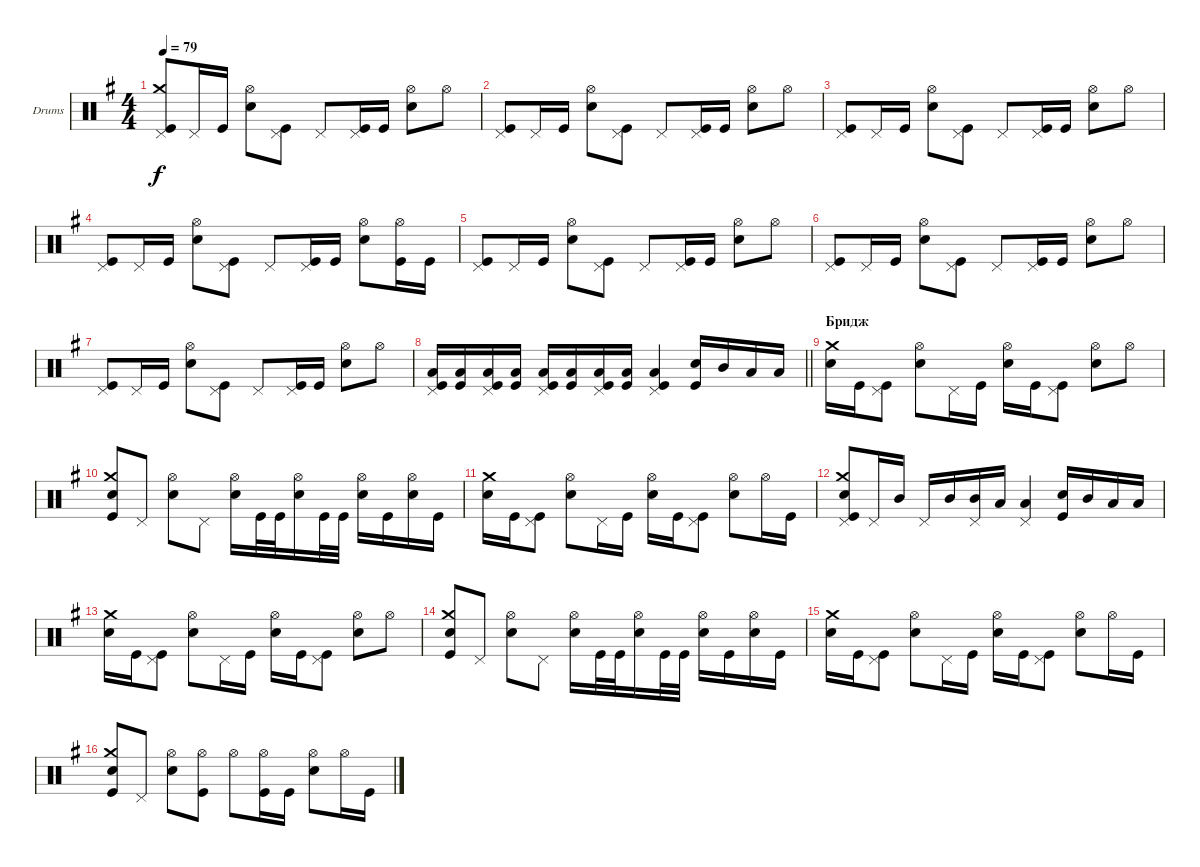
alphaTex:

\bracketExtendMode groupsimilarinstruments
\firstSystemTrackNameOrientation horizontal
\otherSystemsTrackNameOrientation horizontal
\track ("Александр Манякин" "Drums") {instrument percussion}
\staff {score}
\articulation defaults
\ts (4 4)
\tempo 79
\clef neutral
\ks eminor
("Kick (hit)" "Crash medium (hit)" "Pedal Hi-Hat (hit)").8{dy f} "Pedal Hi-Hat (hit)".16 "Kick (hit)".16 ("Snare (hit) 2" "Hi-Hat (open)").8 ("Kick (hit)" "Pedal Hi-Hat (hit)").8 "Pedal Hi-Hat (hit)".8 ("Kick (hit)" "Pedal Hi-Hat (hit)").16 "Kick (hit)".16 ("Hi-Hat (open)" "Snare (hit) 2").8 "Hi-Hat (open)".8 |
("Kick (hit)" "Pedal Hi-Hat (hit)").8 "Pedal Hi-Hat (hit)".16 "Kick (hit)".16 ("Snare (hit) 2" "Hi-Hat (open)").8 ("Kick (hit)" "Pedal Hi-Hat (hit)").8 "Pedal Hi-Hat (hit)".8 ("Kick (hit)" "Pedal Hi-Hat (hit)").16 "Kick (hit)".16 ("Hi-Hat (open)" "Snare (hit) 2").8 "Hi-Hat (open)".8 |
("Kick (hit)" "Pedal Hi-Hat (hit)").8 "Pedal Hi-Hat (hit)".16 "Kick (hit)".16 ("Snare (hit) 2" "Hi-Hat (open)").8 ("Kick (hit)" "Pedal Hi-Hat (hit)").8 "Pedal Hi-Hat (hit)".8 ("Kick (hit)" "Pedal Hi-Hat (hit)").16 "Kick (hit)".16 ("Hi-Hat (open)" "Snare (hit) 2").8 "Hi-Hat (open)".8 |
("Kick (hit)" "Pedal Hi-Hat (hit)").8 "Pedal Hi-Hat (hit)".16 "Kick (hit)".16 ("Snare (hit) 2" "Hi-Hat (open)").8 ("Kick (hit)" "Pedal Hi-Hat (hit)").8 "Pedal Hi-Hat (hit)".8 ("Kick (hit)" "Pedal Hi-Hat (hit)").16 "Kick (hit)".16 ("Hi-Hat (open)" "Snare (hit) 2").8 ("Hi-Hat (open)" "Kick (hit)").16 "Kick (hit)".16 |
("Kick (hit)" "Pedal Hi-Hat (hit)").8 "Pedal Hi-Hat (hit)".16 "Kick (hit)".16 ("Snare (hit) 2" "Hi-Hat (open)").8 ("Kick (hit)" "Pedal Hi-Hat (hit)").8 "Pedal Hi-Hat (hit)".8 ("Kick (hit)" "Pedal Hi-Hat (hit)").16 "Kick (hit)".16 ("Hi-Hat (open)" "Snare (hit) 2").8 "Hi-Hat (open)".8 |
("Kick (hit)" "Pedal Hi-Hat (hit)").8 "Pedal Hi-Hat (hit)".16 "Kick (hit)".16 ("Snare (hit) 2" "Hi-Hat (open)").8 ("Kick (hit)" "Pedal Hi-Hat (hit)").8 "Pedal Hi-Hat (hit)".8 ("Kick (hit)" "Pedal Hi-Hat (hit)").16 "Kick (hit)".16 ("Hi-Hat (open)" "Snare (hit) 2").8 "Hi-Hat (open)".8 |
("Kick (hit)" "Pedal Hi-Hat (hit)").8 "Pedal Hi-Hat (hit)".16 "Kick (hit)".16 ("Snare (hit) 2" "Hi-Hat (open)").8 ("Kick (hit)" "Pedal Hi-Hat (hit)").8 "Pedal Hi-Hat (hit)".8 ("Kick (hit)" "Pedal Hi-Hat (hit)").16 "Kick (hit)".16 ("Hi-Hat (open)" "Snare (hit) 2").8 "Hi-Hat (open)".8 |
\barLineRight lightlight
("Kick (hit)" "Low Tom (hit)" "Pedal Hi-Hat (hit)").16 ("Kick (hit)" "Low Tom (hit)").16 ("Kick (hit)" "Low Tom (hit)" "Pedal Hi-Hat (hit)").16 ("Kick (hit)" "Low Tom (hit)").16 ("Pedal Hi-Hat (hit)" "Kick (hit)" "Low Tom (hit)").16 ("Kick (hit)" "Low Tom (hit)").16 ("Kick (hit)" "Low Tom (hit)" "Pedal Hi-Hat (hit)").16 ("Kick (hit)" "Low Tom (hit)").16 ("Kick (hit)" "Low Tom (hit)" "Pedal Hi-Hat (hit)").4 ("Kick (hit)" "Snare (hit) 2").16 "Mid Tom (hit)".16 "Low Tom (hit)".16 "Low Tom (hit)".16 |
\section ("" "Бридж")
("Snare (hit) 2" "Crash medium (hit)").16 "Kick (hit)".16 ("Kick (hit)" "Pedal Hi-Hat (hit)").8 ("Snare (hit) 2" "Hi-Hat (open)").8 "Pedal Hi-Hat (hit)".16 "Kick (hit)".16 ("Snare (hit) 2" "Hi-Hat (open)").16 "Kick (hit)".16 ("Kick (hit)" "Pedal Hi-Hat (hit)").8 ("Snare (hit) 2" "Hi-Hat (open)").8 "Hi-Hat (open)".8 |
("Snare (hit) 2" "Kick (hit)" "Crash medium (hit)").8 "Pedal Hi-Hat (hit)".8 ("Snare (hit) 2" "Hi-Hat (open)").8 "Pedal Hi-Hat (hit)".8 ("Snare (hit) 2" "Hi-Hat (open)").16 "Kick (hit)".32 "Kick (hit)".32 ("Snare (hit) 2" "Hi-Hat (open)").16 "Kick (hit)".32 "Kick (hit)".32 ("Snare (hit) 2" "Hi-Hat (open)").16 "Kick (hit)".16 ("Snare (hit) 2" "Hi-Hat (open)").16 "Kick (hit)".16 |
("Snare (hit) 2" "Crash medium (hit)").16 "Kick (hit)".16 ("Kick (hit)" "Pedal Hi-Hat (hit)").8 ("Snare (hit) 2" "Hi-Hat (open)").8 "Pedal Hi-Hat (hit)".16 "Kick (hit)".16 ("Snare (hit) 2" "Hi-Hat (open)").16 "Kick (hit)".16 ("Kick (hit)" "Pedal Hi-Hat (hit)").8 ("Snare (hit) 2" "Hi-Hat (open)").8 "Hi-Hat (open)".16 "Kick (hit)".16 |
("Snare (hit) 2" "Crash medium (hit)" "Pedal Hi-Hat (hit)" "Kick (hit)").8 "Pedal Hi-Hat (hit)".16 "Mid Tom (hit)".16 "Pedal Hi-Hat (hit)".16 "Mid Tom (hit)".16 ("Pedal Hi-Hat (hit)" "Mid Tom (hit)").16 "Low Tom (hit)".16 ("Low Tom (hit)" "Pedal Hi-Hat (hit)").4 ("Kick (hit)" "Snare (hit) 2").16 "Mid Tom (hit)".16 "Low Tom (hit)".16 "Low Tom (hit)".16 |
("Snare (hit) 2" "Crash medium (hit)").16 "Kick (hit)".16 ("Kick (hit)" "Pedal Hi-Hat (hit)").8 ("Snare (hit) 2" "Hi-Hat (open)").8 "Pedal Hi-Hat (hit)".16 "Kick (hit)".16 ("Snare (hit) 2" "Hi-Hat (open)").16 "Kick (hit)".16 ("Kick (hit)" "Pedal Hi-Hat (hit)").8 ("Snare (hit) 2" "Hi-Hat (open)").8 "Hi-Hat (open)".8 |
("Snare (hit) 2" "Kick (hit)" "Crash medium (hit)").8 "Pedal Hi-Hat (hit)".8 ("Snare (hit) 2" "Hi-Hat (open)").8 "Pedal Hi-Hat (hit)".8 ("Snare (hit) 2" "Hi-Hat (open)").16 "Kick (hit)".32 "Kick (hit)".32 ("Snare (hit) 2" "Hi-Hat (open)").16 "Kick (hit)".32 "Kick (hit)".32 ("Snare (hit) 2" "Hi-Hat (open)").16 "Kick (hit)".16 ("Snare (hit) 2" "Hi-Hat (open)").16 "Kick (hit)".16 |
("Snare (hit) 2" "Crash medium (hit)").16 "Kick (hit)".16 ("Kick (hit)" "Pedal Hi-Hat (hit)").8 ("Snare (hit) 2" "Hi-Hat (open)").8 "Pedal Hi-Hat (hit)".16 "Kick (hit)".16 ("Snare (hit) 2" "Hi-Hat (open)").16 "Kick (hit)".16 ("Kick (hit)" "Pedal Hi-Hat (hit)").8 ("Snare (hit) 2" "Hi-Hat (open)").8 "Hi-Hat (open)".16 "Kick (hit)".16 |
("Snare (hit) 2" "Crash medium (hit)" "Kick (hit)").8 "Pedal Hi-Hat (hit)".8 ("Snare (hit) 2" "Hi-Hat (open)").8 ("Hi-Hat (open)" "Kick (hit)").8 "Hi-Hat (open)".8 ("Kick (hit)" "Hi-Hat (open)").16 "Kick (hit)".16 ("Hi-Hat (open)" "Snare (hit) 2").8 "Hi-Hat (open)".16 "Kick (hit)".16
